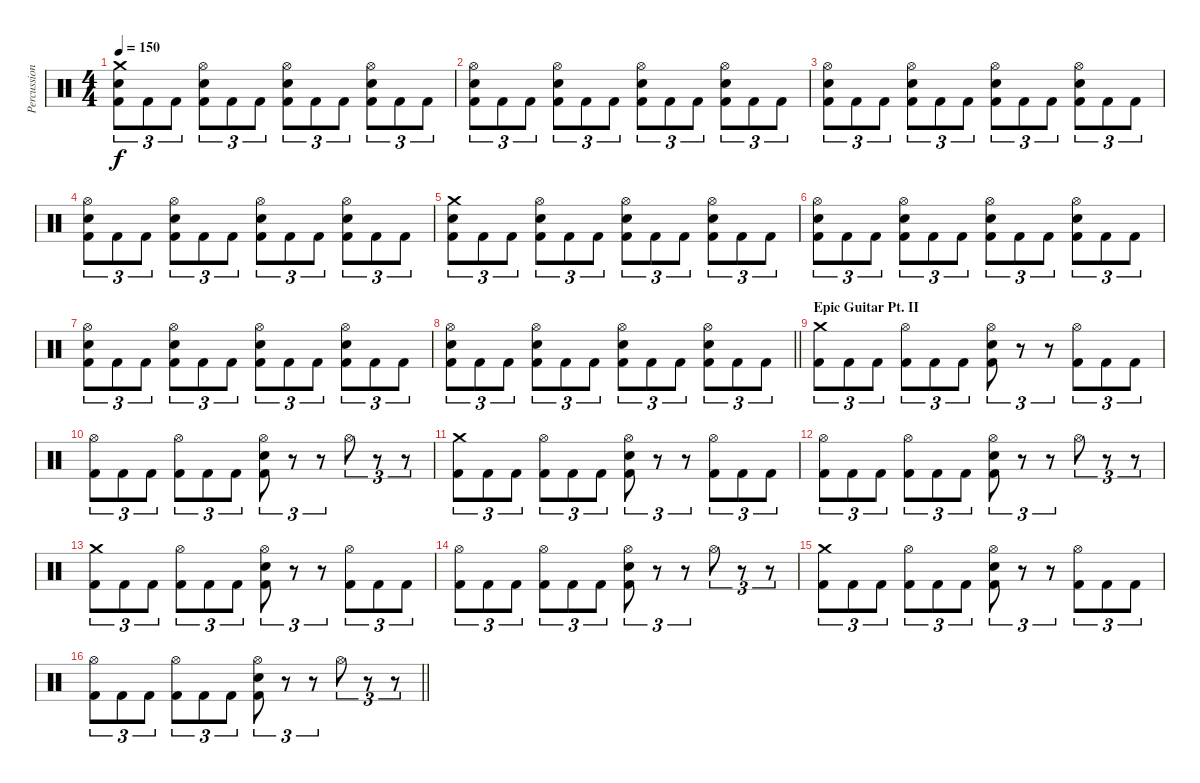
\track ("Percussion" "Percussion") {instrument percussion}
\staff {score}
\articulation defaults
\ts (4 4)
\tempo 150
\clef neutral
\ks c
("Crash medium (hit)" "Electric Snare (hit)" "Kick (hit) 2").8{tu (3 2) dy f} "Kick (hit) 2".8{tu (3 2)} "Kick (hit) 2".8{tu (3 2)} ("Hi-Hat (open)" "Electric Snare (hit)" "Kick (hit) 2").8{tu (3 2)} "Kick (hit) 2".8{tu (3 2)} "Kick (hit) 2".8{tu (3 2)} ("Hi-Hat (open)" "Electric Snare (hit)" "Kick (hit) 2").8{tu (3 2)} "Kick (hit) 2".8{tu (3 2)} "Kick (hit) 2".8{tu (3 2)} ("Hi-Hat (open)" "Electric Snare (hit)" "Kick (hit) 2").8{tu (3 2)} "Kick (hit) 2".8{tu (3 2)} "Kick (hit) 2".8{tu (3 2)} |
("Hi-Hat (open)" "Electric Snare (hit)" "Kick (hit) 2").8{tu (3 2)} "Kick (hit) 2".8{tu (3 2)} "Kick (hit) 2".8{tu (3 2)} ("Hi-Hat (open)" "Electric Snare (hit)" "Kick (hit) 2").8{tu (3 2)} "Kick (hit) 2".8{tu (3 2)} "Kick (hit) 2".8{tu (3 2)} ("Hi-Hat (open)" "Electric Snare (hit)" "Kick (hit) 2").8{tu (3 2)} "Kick (hit) 2".8{tu (3 2)} "Kick (hit) 2".8{tu (3 2)} ("Hi-Hat (open)" "Electric Snare (hit)" "Kick (hit) 2").8{tu (3 2)} "Kick (hit) 2".8{tu (3 2)} "Kick (hit) 2".8{tu (3 2)} |
("Hi-Hat (open)" "Electric Snare (hit)" "Kick (hit) 2").8{tu (3 2)} "Kick (hit) 2".8{tu (3 2)} "Kick (hit) 2".8{tu (3 2)} ("Hi-Hat (open)" "Electric Snare (hit)" "Kick (hit) 2").8{tu (3 2)} "Kick (hit) 2".8{tu (3 2)} "Kick (hit) 2".8{tu (3 2)} ("Hi-Hat (open)" "Electric Snare (hit)" "Kick (hit) 2").8{tu (3 2)} "Kick (hit) 2".8{tu (3 2)} "Kick (hit) 2".8{tu (3 2)} ("Hi-Hat (open)" "Electric Snare (hit)" "Kick (hit) 2").8{tu (3 2)} "Kick (hit) 2".8{tu (3 2)} "Kick (hit) 2".8{tu (3 2)} |
("Hi-Hat (open)" "Electric Snare (hit)" "Kick (hit) 2").8{tu (3 2)} "Kick (hit) 2".8{tu (3 2)} "Kick (hit) 2".8{tu (3 2)} ("Hi-Hat (open)" "Electric Snare (hit)" "Kick (hit) 2").8{tu (3 2)} "Kick (hit) 2".8{tu (3 2)} "Kick (hit) 2".8{tu (3 2)} ("Hi-Hat (open)" "Electric Snare (hit)" "Kick (hit) 2").8{tu (3 2)} "Kick (hit) 2".8{tu (3 2)} "Kick (hit) 2".8{tu (3 2)} ("Hi-Hat (open)" "Electric Snare (hit)" "Kick (hit) 2").8{tu (3 2)} "Kick (hit) 2".8{tu (3 2)} "Kick (hit) 2".8{tu (3 2)} |
("Crash medium (hit)" "Electric Snare (hit)" "Kick (hit) 2").8{tu (3 2)} "Kick (hit) 2".8{tu (3 2)} "Kick (hit) 2".8{tu (3 2)} ("Hi-Hat (open)" "Electric Snare (hit)" "Kick (hit) 2").8{tu (3 2)} "Kick (hit) 2".8{tu (3 2)} "Kick (hit) 2".8{tu (3 2)} ("Hi-Hat (open)" "Electric Snare (hit)" "Kick (hit) 2").8{tu (3 2)} "Kick (hit) 2".8{tu (3 2)} "Kick (hit) 2".8{tu (3 2)} ("Hi-Hat (open)" "Electric Snare (hit)" "Kick (hit) 2").8{tu (3 2)} "Kick (hit) 2".8{tu (3 2)} "Kick (hit) 2".8{tu (3 2)} |
("Hi-Hat (open)" "Electric Snare (hit)" "Kick (hit) 2").8{tu (3 2)} "Kick (hit) 2".8{tu (3 2)} "Kick (hit) 2".8{tu (3 2)} ("Hi-Hat (open)" "Electric Snare (hit)" "Kick (hit) 2").8{tu (3 2)} "Kick (hit) 2".8{tu (3 2)} "Kick (hit) 2".8{tu (3 2)} ("Hi-Hat (open)" "Electric Snare (hit)" "Kick (hit) 2").8{tu (3 2)} "Kick (hit) 2".8{tu (3 2)} "Kick (hit) 2".8{tu (3 2)} ("Hi-Hat (open)" "Electric Snare (hit)" "Kick (hit) 2").8{tu (3 2)} "Kick (hit) 2".8{tu (3 2)} "Kick (hit) 2".8{tu (3 2)} |
("Hi-Hat (open)" "Electric Snare (hit)" "Kick (hit) 2").8{tu (3 2)} "Kick (hit) 2".8{tu (3 2)} "Kick (hit) 2".8{tu (3 2)} ("Hi-Hat (open)" "Electric Snare (hit)" "Kick (hit) 2").8{tu (3 2)} "Kick (hit) 2".8{tu (3 2)} "Kick (hit) 2".8{tu (3 2)} ("Hi-Hat (open)" "Electric Snare (hit)" "Kick (hit) 2").8{tu (3 2)} "Kick (hit) 2".8{tu (3 2)} "Kick (hit) 2".8{tu (3 2)} ("Hi-Hat (open)" "Electric Snare (hit)" "Kick (hit) 2").8{tu (3 2)} "Kick (hit) 2".8{tu (3 2)} "Kick (hit) 2".8{tu (3 2)} |
\barLineRight lightlight
("Hi-Hat (open)" "Electric Snare (hit)" "Kick (hit) 2").8{tu (3 2)} "Kick (hit) 2".8{tu (3 2)} "Kick (hit) 2".8{tu (3 2)} ("Hi-Hat (open)" "Electric Snare (hit)" "Kick (hit) 2").8{tu (3 2)} "Kick (hit) 2".8{tu (3 2)} "Kick (hit) 2".8{tu (3 2)} ("Hi-Hat (open)" "Electric Snare (hit)" "Kick (hit) 2").8{tu (3 2)} "Kick (hit) 2".8{tu (3 2)} "Kick (hit) 2".8{tu (3 2)} ("Hi-Hat (open)" "Electric Snare (hit)" "Kick (hit) 2").8{tu (3 2)} "Kick (hit) 2".8{tu (3 2)} "Kick (hit) 2".8{tu (3 2)} |
\section ("" "Epic Guitar Pt. II")
("Crash medium (hit)" "Kick (hit) 2").8{tu (3 2)} "Kick (hit) 2".8{tu (3 2)} "Kick (hit) 2".8{tu (3 2)} ("Hi-Hat (open)" "Kick (hit) 2").8{tu (3 2)} "Kick (hit) 2".8{tu (3 2)} "Kick (hit) 2".8{tu (3 2)} ("Hi-Hat (open)" "Electric Snare (hit)" "Kick (hit) 2").8{tu (3 2)} r.8{tu (3 2)} r.8{tu (3 2)} ("Hi-Hat (open)" "Kick (hit) 2").8{tu (3 2)} "Kick (hit) 2".8{tu (3 2)} "Kick (hit) 2".8{tu (3 2)} |
("Hi-Hat (open)" "Kick (hit) 2").8{tu (3 2)} "Kick (hit) 2".8{tu (3 2)} "Kick (hit) 2".8{tu (3 2)} ("Hi-Hat (open)" "Kick (hit) 2").8{tu (3 2)} "Kick (hit) 2".8{tu (3 2)} "Kick (hit) 2".8{tu (3 2)} ("Hi-Hat (open)" "Electric Snare (hit)" "Kick (hit) 2").8{tu (3 2)} r.8{tu (3 2)} r.8{tu (3 2)} "Hi-Hat (open)".8{tu (3 2)} r.8{tu (3 2)} r.8{tu (3 2)} |
("Crash medium (hit)" "Kick (hit) 2").8{tu (3 2)} "Kick (hit) 2".8{tu (3 2)} "Kick (hit) 2".8{tu (3 2)} ("Hi-Hat (open)" "Kick (hit) 2").8{tu (3 2)} "Kick (hit) 2".8{tu (3 2)} "Kick (hit) 2".8{tu (3 2)} ("Hi-Hat (open)" "Electric Snare (hit)" "Kick (hit) 2").8{tu (3 2)} r.8{tu (3 2)} r.8{tu (3 2)} ("Hi-Hat (open)" "Kick (hit) 2").8{tu (3 2)} "Kick (hit) 2".8{tu (3 2)} "Kick (hit) 2".8{tu (3 2)} |
("Hi-Hat (open)" "Kick (hit) 2").8{tu (3 2)} "Kick (hit) 2".8{tu (3 2)} "Kick (hit) 2".8{tu (3 2)} ("Hi-Hat (open)" "Kick (hit) 2").8{tu (3 2)} "Kick (hit) 2".8{tu (3 2)} "Kick (hit) 2".8{tu (3 2)} ("Hi-Hat (open)" "Electric Snare (hit)" "Kick (hit) 2").8{tu (3 2)} r.8{tu (3 2)} r.8{tu (3 2)} "Hi-Hat (open)".8{tu (3 2)} r.8{tu (3 2)} r.8{tu (3 2)} |
("Crash medium (hit)" "Kick (hit) 2").8{tu (3 2)} "Kick (hit) 2".8{tu (3 2)} "Kick (hit) 2".8{tu (3 2)} ("Hi-Hat (open)" "Kick (hit) 2").8{tu (3 2)} "Kick (hit) 2".8{tu (3 2)} "Kick (hit) 2".8{tu (3 2)} ("Hi-Hat (open)" "Electric Snare (hit)" "Kick (hit) 2").8{tu (3 2)} r.8{tu (3 2)} r.8{tu (3 2)} ("Hi-Hat (open)" "Kick (hit) 2").8{tu (3 2)} "Kick (hit) 2".8{tu (3 2)} "Kick (hit) 2".8{tu (3 2)} |
("Hi-Hat (open)" "Kick (hit) 2").8{tu (3 2)} "Kick (hit) 2".8{tu (3 2)} "Kick (hit) 2".8{tu (3 2)} ("Hi-Hat (open)" "Kick (hit) 2").8{tu (3 2)} "Kick (hit) 2".8{tu (3 2)} "Kick (hit) 2".8{tu (3 2)} ("Hi-Hat (open)" "Electric Snare (hit)" "Kick (hit) 2").8{tu (3 2)} r.8{tu (3 2)} r.8{tu (3 2)} "Hi-Hat (open)".8{tu (3 2)} r.8{tu (3 2)} r.8{tu (3 2)} |
("Crash medium (hit)" "Kick (hit) 2").8{tu (3 2)} "Kick (hit) 2".8{tu (3 2)} "Kick (hit) 2".8{tu (3 2)} ("Hi-Hat (open)" "Kick (hit) 2").8{tu (3 2)} "Kick (hit) 2".8{tu (3 2)} "Kick (hit) 2".8{tu (3 2)} ("Hi-Hat (open)" "Electric Snare (hit)" "Kick (hit) 2").8{tu (3 2)} r.8{tu (3 2)} r.8{tu (3 2)} ("Hi-Hat (open)" "Kick (hit) 2").8{tu (3 2)} "Kick (hit) 2".8{tu (3 2)} "Kick (hit) 2".8{tu (3 2)} |
\barLineRight lightlight
("Hi-Hat (open)" "Kick (hit) 2").8{tu (3 2)} "Kick (hit) 2".8{tu (3 2)} "Kick (hit) 2".8{tu (3 2)} ("Hi-Hat (open)" "Kick (hit) 2").8{tu (3 2)} "Kick (hit) 2".8{tu (3 2)} "Kick (hit) 2".8{tu (3 2)} ("Hi-Hat (open)" "Electric Snare (hit)" "Kick (hit) 2").8{tu (3 2)} r.8{tu (3 2)} r.8{tu (3 2)} "Hi-Hat (open)".8{tu (3 2)} r.8{tu (3 2)} r.8{tu (3 2)}
